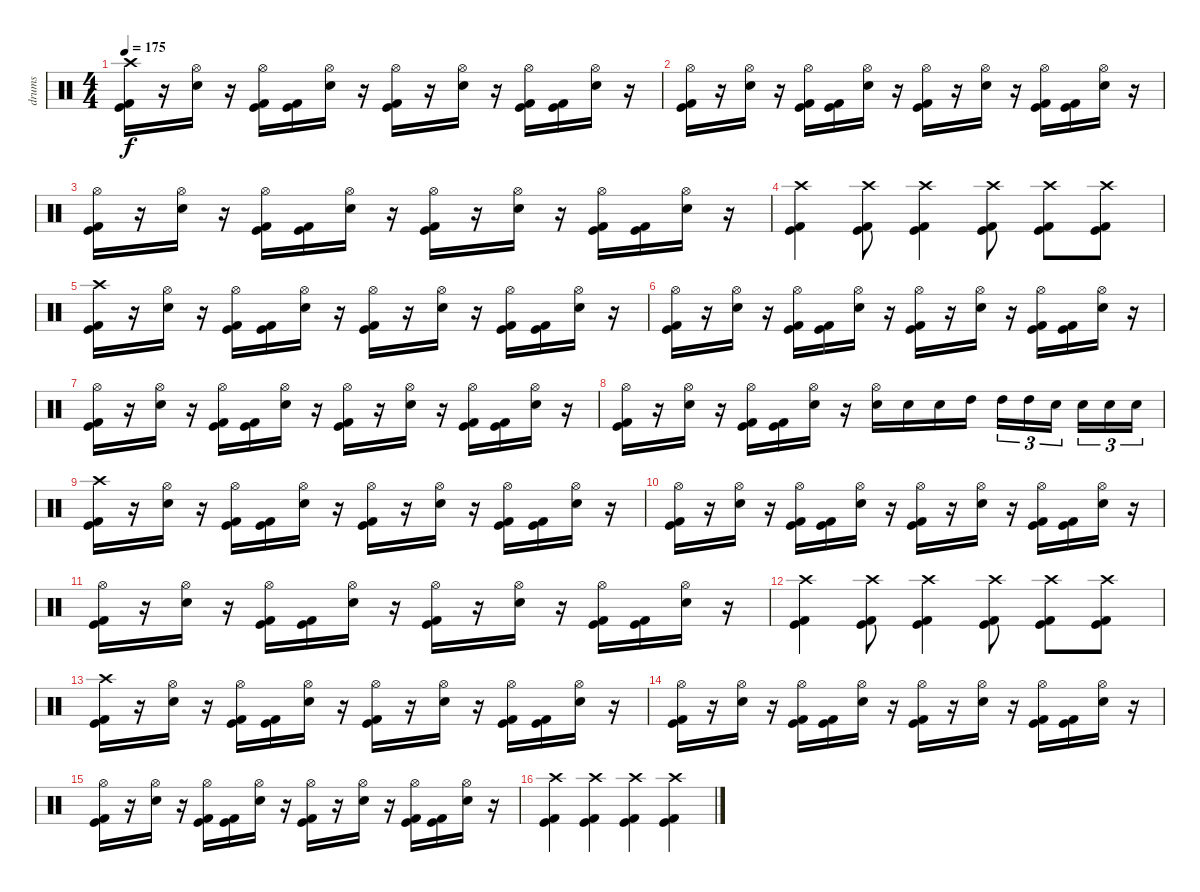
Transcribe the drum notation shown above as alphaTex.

\track ("drums" "drums") {instrument percussion}
\staff {score}
\articulation defaults
\ts (4 4)
\tempo 175
\clef neutral
\ks c
("Crash high (hit)" "Kick (hit)" "Kick (hit) 2").16{dy f} r.16 ("Hi-Hat (open)" "Electric Snare (hit)").16 r.16 ("Hi-Hat (open)" "Kick (hit)" "Kick (hit) 2").16 ("Kick (hit)" "Kick (hit) 2").16 ("Hi-Hat (open)" "Electric Snare (hit)").16 r.16 ("Hi-Hat (open)" "Kick (hit)" "Kick (hit) 2").16 r.16 ("Hi-Hat (open)" "Electric Snare (hit)").16 r.16 ("Hi-Hat (open)" "Kick (hit)" "Kick (hit) 2").16 ("Kick (hit)" "Kick (hit) 2").16 ("Hi-Hat (open)" "Electric Snare (hit)").16 r.16 |
("Hi-Hat (open)" "Kick (hit)" "Kick (hit) 2").16 r.16 ("Hi-Hat (open)" "Electric Snare (hit)").16 r.16 ("Hi-Hat (open)" "Kick (hit)" "Kick (hit) 2").16 ("Kick (hit)" "Kick (hit) 2").16 ("Hi-Hat (open)" "Electric Snare (hit)").16 r.16 ("Hi-Hat (open)" "Kick (hit)" "Kick (hit) 2").16 r.16 ("Hi-Hat (open)" "Electric Snare (hit)").16 r.16 ("Hi-Hat (open)" "Kick (hit)" "Kick (hit) 2").16 ("Kick (hit)" "Kick (hit) 2").16 ("Hi-Hat (open)" "Electric Snare (hit)").16 r.16 |
("Hi-Hat (open)" "Kick (hit)" "Kick (hit) 2").16 r.16 ("Hi-Hat (open)" "Electric Snare (hit)").16 r.16 ("Hi-Hat (open)" "Kick (hit)" "Kick (hit) 2").16 ("Kick (hit)" "Kick (hit) 2").16 ("Hi-Hat (open)" "Electric Snare (hit)").16 r.16 ("Hi-Hat (open)" "Kick (hit)" "Kick (hit) 2").16 r.16 ("Hi-Hat (open)" "Electric Snare (hit)").16 r.16 ("Hi-Hat (open)" "Kick (hit)" "Kick (hit) 2").16 ("Kick (hit)" "Kick (hit) 2").16 ("Hi-Hat (open)" "Electric Snare (hit)").16 r.16 |
("Crash high (hit)" "Kick (hit)" "Kick (hit) 2").4 ("Crash high (hit)" "Kick (hit)" "Kick (hit) 2").8 ("Crash high (hit)" "Kick (hit)" "Kick (hit) 2").4 ("Crash high (hit)" "Kick (hit)" "Kick (hit) 2").8 ("Crash high (hit)" "Kick (hit)" "Kick (hit) 2").8 ("Crash high (hit)" "Kick (hit)" "Kick (hit) 2").8 |
("Crash high (hit)" "Kick (hit)" "Kick (hit) 2").16 r.16 ("Hi-Hat (open)" "Electric Snare (hit)").16 r.16 ("Hi-Hat (open)" "Kick (hit)" "Kick (hit) 2").16 ("Kick (hit)" "Kick (hit) 2").16 ("Hi-Hat (open)" "Electric Snare (hit)").16 r.16 ("Hi-Hat (open)" "Kick (hit)" "Kick (hit) 2").16 r.16 ("Hi-Hat (open)" "Electric Snare (hit)").16 r.16 ("Hi-Hat (open)" "Kick (hit)" "Kick (hit) 2").16 ("Kick (hit)" "Kick (hit) 2").16 ("Hi-Hat (open)" "Electric Snare (hit)").16 r.16 |
("Hi-Hat (open)" "Kick (hit)" "Kick (hit) 2").16 r.16 ("Hi-Hat (open)" "Electric Snare (hit)").16 r.16 ("Hi-Hat (open)" "Kick (hit)" "Kick (hit) 2").16 ("Kick (hit)" "Kick (hit) 2").16 ("Hi-Hat (open)" "Electric Snare (hit)").16 r.16 ("Hi-Hat (open)" "Kick (hit)" "Kick (hit) 2").16 r.16 ("Hi-Hat (open)" "Electric Snare (hit)").16 r.16 ("Hi-Hat (open)" "Kick (hit)" "Kick (hit) 2").16 ("Kick (hit)" "Kick (hit) 2").16 ("Hi-Hat (open)" "Electric Snare (hit)").16 r.16 |
("Hi-Hat (open)" "Kick (hit)" "Kick (hit) 2").16 r.16 ("Hi-Hat (open)" "Electric Snare (hit)").16 r.16 ("Hi-Hat (open)" "Kick (hit)" "Kick (hit) 2").16 ("Kick (hit)" "Kick (hit) 2").16 ("Hi-Hat (open)" "Electric Snare (hit)").16 r.16 ("Hi-Hat (open)" "Kick (hit)" "Kick (hit) 2").16 r.16 ("Hi-Hat (open)" "Electric Snare (hit)").16 r.16 ("Hi-Hat (open)" "Kick (hit)" "Kick (hit) 2").16 ("Kick (hit)" "Kick (hit) 2").16 ("Hi-Hat (open)" "Electric Snare (hit)").16 r.16 |
("Hi-Hat (open)" "Kick (hit)" "Kick (hit) 2").16 r.16 ("Hi-Hat (open)" "Electric Snare (hit)").16 r.16 ("Hi-Hat (open)" "Kick (hit)" "Kick (hit) 2").16 ("Kick (hit)" "Kick (hit) 2").16 ("Hi-Hat (open)" "Electric Snare (hit)").16 r.16 ("Hi-Hat (open)" "Electric Snare (hit)").16 "Electric Snare (hit)".16 "Electric Snare (hit)".16 "High Tom (hit)".16 "High Tom (hit)".16{tu (3 2)} "High Tom (hit)".16{tu (3 2)} "Electric Snare (hit)".16{tu (3 2) beam splitsecondary} "Electric Snare (hit)".16{tu (3 2)} "Electric Snare (hit)".16{tu (3 2)} "Electric Snare (hit)".16{tu (3 2)} |
("Crash high (hit)" "Kick (hit)" "Kick (hit) 2").16 r.16 ("Hi-Hat (open)" "Electric Snare (hit)").16 r.16 ("Hi-Hat (open)" "Kick (hit)" "Kick (hit) 2").16 ("Kick (hit)" "Kick (hit) 2").16 ("Hi-Hat (open)" "Electric Snare (hit)").16 r.16 ("Hi-Hat (open)" "Kick (hit)" "Kick (hit) 2").16 r.16 ("Hi-Hat (open)" "Electric Snare (hit)").16 r.16 ("Hi-Hat (open)" "Kick (hit)" "Kick (hit) 2").16 ("Kick (hit)" "Kick (hit) 2").16 ("Hi-Hat (open)" "Electric Snare (hit)").16 r.16 |
("Hi-Hat (open)" "Kick (hit)" "Kick (hit) 2").16 r.16 ("Hi-Hat (open)" "Electric Snare (hit)").16 r.16 ("Hi-Hat (open)" "Kick (hit)" "Kick (hit) 2").16 ("Kick (hit)" "Kick (hit) 2").16 ("Hi-Hat (open)" "Electric Snare (hit)").16 r.16 ("Hi-Hat (open)" "Kick (hit)" "Kick (hit) 2").16 r.16 ("Hi-Hat (open)" "Electric Snare (hit)").16 r.16 ("Hi-Hat (open)" "Kick (hit)" "Kick (hit) 2").16 ("Kick (hit)" "Kick (hit) 2").16 ("Hi-Hat (open)" "Electric Snare (hit)").16 r.16 |
("Hi-Hat (open)" "Kick (hit)" "Kick (hit) 2").16 r.16 ("Hi-Hat (open)" "Electric Snare (hit)").16 r.16 ("Hi-Hat (open)" "Kick (hit)" "Kick (hit) 2").16 ("Kick (hit)" "Kick (hit) 2").16 ("Hi-Hat (open)" "Electric Snare (hit)").16 r.16 ("Hi-Hat (open)" "Kick (hit)" "Kick (hit) 2").16 r.16 ("Hi-Hat (open)" "Electric Snare (hit)").16 r.16 ("Hi-Hat (open)" "Kick (hit)" "Kick (hit) 2").16 ("Kick (hit)" "Kick (hit) 2").16 ("Hi-Hat (open)" "Electric Snare (hit)").16 r.16 |
("Crash high (hit)" "Kick (hit)" "Kick (hit) 2").4 ("Crash high (hit)" "Kick (hit)" "Kick (hit) 2").8 ("Crash high (hit)" "Kick (hit)" "Kick (hit) 2").4 ("Crash high (hit)" "Kick (hit)" "Kick (hit) 2").8 ("Crash high (hit)" "Kick (hit)" "Kick (hit) 2").8 ("Crash high (hit)" "Kick (hit)" "Kick (hit) 2").8 |
("Crash high (hit)" "Kick (hit)" "Kick (hit) 2").16 r.16 ("Hi-Hat (open)" "Electric Snare (hit)").16 r.16 ("Hi-Hat (open)" "Kick (hit)" "Kick (hit) 2").16 ("Kick (hit)" "Kick (hit) 2").16 ("Hi-Hat (open)" "Electric Snare (hit)").16 r.16 ("Hi-Hat (open)" "Kick (hit)" "Kick (hit) 2").16 r.16 ("Hi-Hat (open)" "Electric Snare (hit)").16 r.16 ("Hi-Hat (open)" "Kick (hit)" "Kick (hit) 2").16 ("Kick (hit)" "Kick (hit) 2").16 ("Hi-Hat (open)" "Electric Snare (hit)").16 r.16 |
("Hi-Hat (open)" "Kick (hit)" "Kick (hit) 2").16 r.16 ("Hi-Hat (open)" "Electric Snare (hit)").16 r.16 ("Hi-Hat (open)" "Kick (hit)" "Kick (hit) 2").16 ("Kick (hit)" "Kick (hit) 2").16 ("Hi-Hat (open)" "Electric Snare (hit)").16 r.16 ("Hi-Hat (open)" "Kick (hit)" "Kick (hit) 2").16 r.16 ("Hi-Hat (open)" "Electric Snare (hit)").16 r.16 ("Hi-Hat (open)" "Kick (hit)" "Kick (hit) 2").16 ("Kick (hit)" "Kick (hit) 2").16 ("Hi-Hat (open)" "Electric Snare (hit)").16 r.16 |
("Hi-Hat (open)" "Kick (hit)" "Kick (hit) 2").16 r.16 ("Hi-Hat (open)" "Electric Snare (hit)").16 r.16 ("Hi-Hat (open)" "Kick (hit)" "Kick (hit) 2").16 ("Kick (hit)" "Kick (hit) 2").16 ("Hi-Hat (open)" "Electric Snare (hit)").16 r.16 ("Hi-Hat (open)" "Kick (hit)" "Kick (hit) 2").16 r.16 ("Hi-Hat (open)" "Electric Snare (hit)").16 r.16 ("Hi-Hat (open)" "Kick (hit)" "Kick (hit) 2").16 ("Kick (hit)" "Kick (hit) 2").16 ("Hi-Hat (open)" "Electric Snare (hit)").16 r.16 |
("Crash high (hit)" "Kick (hit)" "Kick (hit) 2").4 ("Crash high (hit)" "Kick (hit)" "Kick (hit) 2").4 ("Crash high (hit)" "Kick (hit)" "Kick (hit) 2").4 ("Crash high (hit)" "Kick (hit)" "Kick (hit) 2").4
